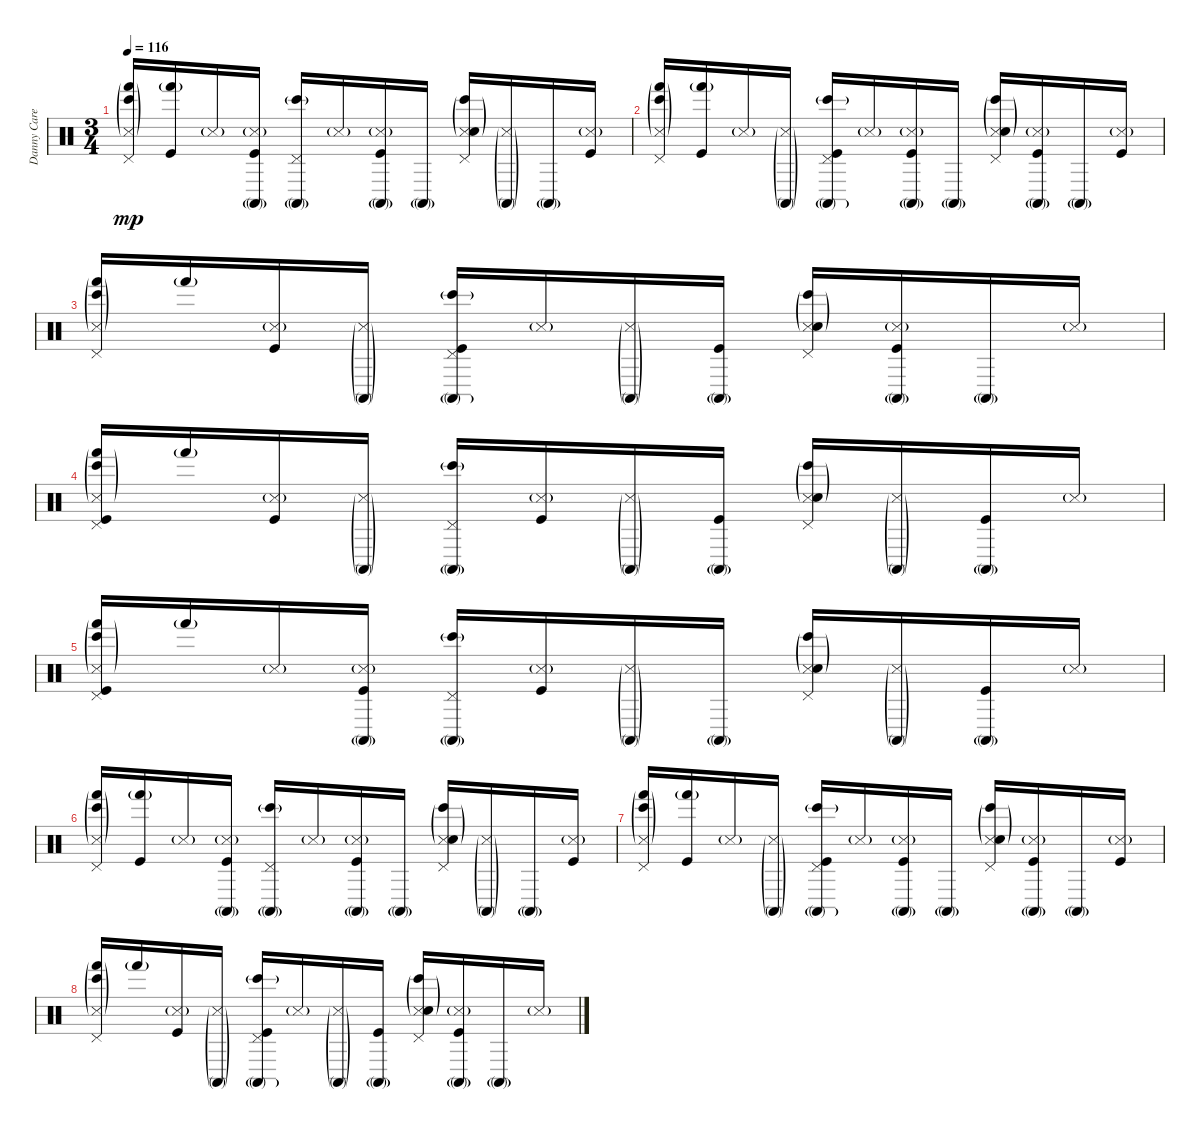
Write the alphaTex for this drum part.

\track ("Danny Carey (drum)" "Danny Care") {instrument percussion}
\staff {score}
\articulation defaults
\ts (3 4)
\tempo 116
\clef neutral
\ks c
("Hand (hit)"{g} "Pedal Hi-Hat (hit)" "Snare (side stick) 3"{g} "Bongo High (hit)"{g}).16{dy mp} ("Hand (hit)"{g} "Kick (hit)").16 "Snare (side stick) 3"{g}.16 ("Conga high (mute)"{g} "Snare (side stick) 3"{g} "Kick (hit)").16 ("Conga high (mute)"{g} "Pedal Hi-Hat (hit)" "Bongo High (hit)"{g}).16 "Snare (side stick) 3"{g}.16 ("Conga high (mute)"{g} "Snare (side stick) 3"{g} "Kick (hit)").16 "Conga high (mute)"{g}.16 ("Pedal Hi-Hat (hit)" "Snare (side stick) 3"{g} "Snare (hit) 2" "Bongo High (hit)"{g}).16 ("Conga high (mute)"{g} "Snare (side stick) 3"{g}).16 "Conga high (mute)"{g}.16 ("Snare (side stick) 3"{g} "Kick (hit)").16 |
("Hand (hit)"{g} "Pedal Hi-Hat (hit)" "Snare (side stick) 3"{g} "Bongo High (hit)"{g}).16 ("Hand (hit)"{g} "Kick (hit)").16 "Snare (side stick) 3"{g}.16 ("Conga high (mute)"{g} "Snare (side stick) 3"{g}).16 ("Conga high (mute)"{g} "Pedal Hi-Hat (hit)" "Bongo High (hit)"{g} "Kick (hit)").16 "Snare (side stick) 3"{g}.16 ("Conga high (mute)"{g} "Snare (side stick) 3"{g} "Kick (hit)").16 "Conga high (mute)"{g}.16 ("Pedal Hi-Hat (hit)" "Snare (side stick) 3"{g} "Snare (hit) 2" "Bongo High (hit)"{g}).16 ("Conga high (mute)"{g} "Snare (side stick) 3"{g} "Kick (hit)").16 "Conga high (mute)"{g}.16 ("Snare (side stick) 3"{g} "Kick (hit)").16 |
("Hand (hit)"{g} "Pedal Hi-Hat (hit)" "Snare (side stick) 3"{g} "Bongo High (hit)"{g}).16 "Hand (hit)"{g}.16 ("Snare (side stick) 3"{g} "Kick (hit)").16 ("Conga high (mute)"{g} "Snare (side stick) 3"{g}).16 ("Conga high (mute)"{g} "Pedal Hi-Hat (hit)" "Bongo High (hit)"{g} "Kick (hit)").16 "Snare (side stick) 3"{g}.16 ("Conga high (mute)"{g} "Snare (side stick) 3"{g}).16 ("Conga high (mute)"{g} "Kick (hit)").16 ("Pedal Hi-Hat (hit)" "Snare (side stick) 3"{g} "Snare (hit) 2" "Bongo High (hit)"{g}).16 ("Conga high (mute)"{g} "Snare (side stick) 3"{g} "Kick (hit)").16 "Conga high (mute)"{g}.16 "Snare (side stick) 3"{g}.16 |
("Hand (hit)"{g} "Pedal Hi-Hat (hit)" "Snare (side stick) 3"{g} "Bongo High (hit)"{g} "Kick (hit)").16 "Hand (hit)"{g}.16 ("Snare (side stick) 3"{g} "Kick (hit)").16 ("Conga high (mute)"{g} "Snare (side stick) 3"{g}).16 ("Conga high (mute)"{g} "Pedal Hi-Hat (hit)" "Bongo High (hit)"{g}).16 ("Snare (side stick) 3"{g} "Kick (hit)").16 ("Conga high (mute)"{g} "Snare (side stick) 3"{g}).16 ("Conga high (mute)"{g} "Kick (hit)").16 ("Pedal Hi-Hat (hit)" "Snare (side stick) 3"{g} "Snare (hit) 2" "Bongo High (hit)"{g}).16 ("Conga high (mute)"{g} "Snare (side stick) 3"{g}).16 ("Conga high (mute)"{g} "Kick (hit)").16 "Snare (side stick) 3"{g}.16 |
("Hand (hit)"{g} "Pedal Hi-Hat (hit)" "Snare (side stick) 3"{g} "Bongo High (hit)"{g} "Kick (hit)").16 "Hand (hit)"{g}.16 "Snare (side stick) 3"{g}.16 ("Conga high (mute)"{g} "Snare (side stick) 3"{g} "Kick (hit)").16 ("Conga high (mute)"{g} "Pedal Hi-Hat (hit)" "Bongo High (hit)"{g}).16 ("Snare (side stick) 3"{g} "Kick (hit)").16 ("Conga high (mute)"{g} "Snare (side stick) 3"{g}).16 "Conga high (mute)"{g}.16 ("Pedal Hi-Hat (hit)" "Snare (side stick) 3"{g} "Snare (hit) 2" "Bongo High (hit)"{g}).16 ("Conga high (mute)"{g} "Snare (side stick) 3"{g}).16 ("Conga high (mute)"{g} "Kick (hit)").16 "Snare (side stick) 3"{g}.16 |
("Hand (hit)"{g} "Pedal Hi-Hat (hit)" "Snare (side stick) 3"{g} "Bongo High (hit)"{g}).16 ("Hand (hit)"{g} "Kick (hit)").16 "Snare (side stick) 3"{g}.16 ("Conga high (mute)"{g} "Snare (side stick) 3"{g} "Kick (hit)").16 ("Conga high (mute)"{g} "Pedal Hi-Hat (hit)" "Bongo High (hit)"{g}).16 "Snare (side stick) 3"{g}.16 ("Conga high (mute)"{g} "Snare (side stick) 3"{g} "Kick (hit)").16 "Conga high (mute)"{g}.16 ("Pedal Hi-Hat (hit)" "Snare (side stick) 3"{g} "Snare (hit) 2" "Bongo High (hit)"{g}).16 ("Conga high (mute)"{g} "Snare (side stick) 3"{g}).16 "Conga high (mute)"{g}.16 ("Snare (side stick) 3"{g} "Kick (hit)").16 |
("Hand (hit)"{g} "Pedal Hi-Hat (hit)" "Snare (side stick) 3"{g} "Bongo High (hit)"{g}).16 ("Hand (hit)"{g} "Kick (hit)").16 "Snare (side stick) 3"{g}.16 ("Conga high (mute)"{g} "Snare (side stick) 3"{g}).16 ("Conga high (mute)"{g} "Pedal Hi-Hat (hit)" "Bongo High (hit)"{g} "Kick (hit)").16 "Snare (side stick) 3"{g}.16 ("Conga high (mute)"{g} "Snare (side stick) 3"{g} "Kick (hit)").16 "Conga high (mute)"{g}.16 ("Pedal Hi-Hat (hit)" "Snare (side stick) 3"{g} "Snare (hit) 2" "Bongo High (hit)"{g}).16 ("Conga high (mute)"{g} "Snare (side stick) 3"{g} "Kick (hit)").16 "Conga high (mute)"{g}.16 ("Snare (side stick) 3"{g} "Kick (hit)").16 |
("Hand (hit)"{g} "Pedal Hi-Hat (hit)" "Snare (side stick) 3"{g} "Bongo High (hit)"{g}).16 "Hand (hit)"{g}.16 ("Snare (side stick) 3"{g} "Kick (hit)").16 ("Conga high (mute)"{g} "Snare (side stick) 3"{g}).16 ("Conga high (mute)"{g} "Pedal Hi-Hat (hit)" "Bongo High (hit)"{g} "Kick (hit)").16 "Snare (side stick) 3"{g}.16 ("Conga high (mute)"{g} "Snare (side stick) 3"{g}).16 ("Conga high (mute)"{g} "Kick (hit)").16 ("Pedal Hi-Hat (hit)" "Snare (side stick) 3"{g} "Snare (hit) 2" "Bongo High (hit)"{g}).16 ("Conga high (mute)"{g} "Snare (side stick) 3"{g} "Kick (hit)").16 "Conga high (mute)"{g}.16 "Snare (side stick) 3"{g}.16
